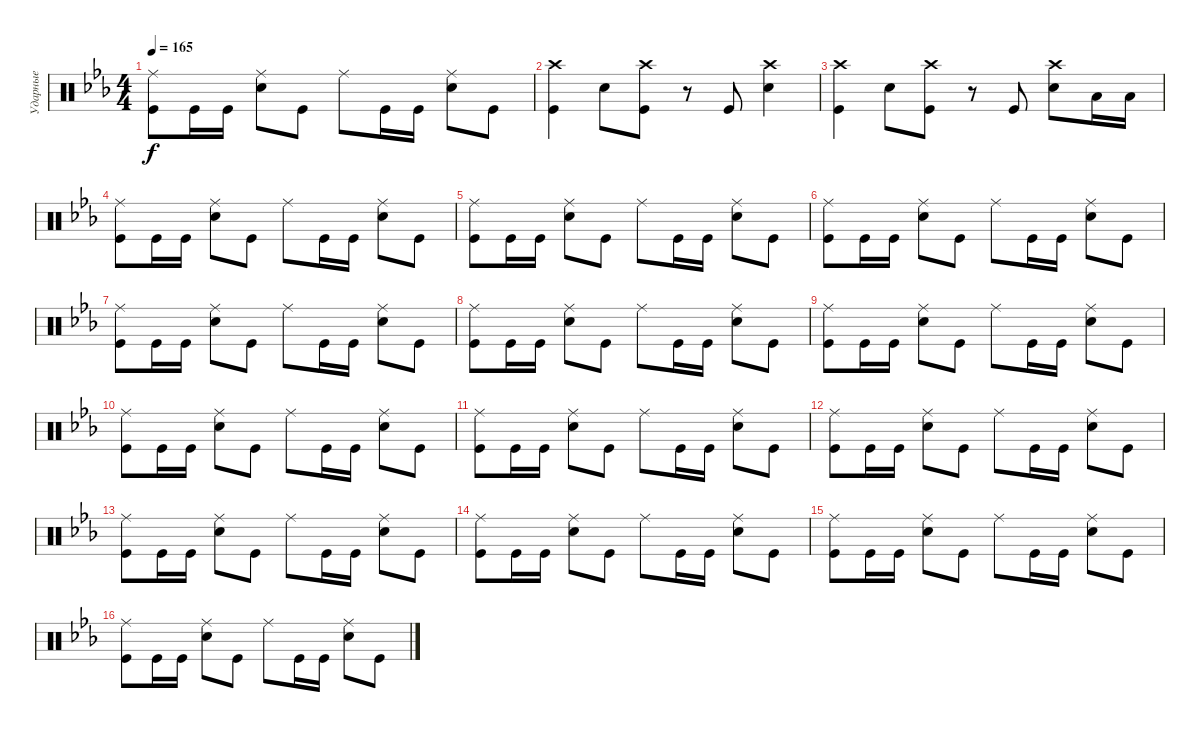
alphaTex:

\track ("Ударные" "Ударные") {instrument percussion}
\staff {score}
\articulation defaults
\ts (4 4)
\tempo 165
\clef neutral
\ks cminor
("Kick (hit)" "Ride (middle)").8{dy f} "Kick (hit)".16 "Kick (hit)".16 ("Snare (hit) 2" "Ride (middle)").8 "Kick (hit)".8 "Ride (middle)".8 "Kick (hit)".16 "Kick (hit)".16 ("Snare (hit) 2" "Ride (middle)").8 "Kick (hit)".8 |
("Kick (hit)" "Crash high (hit)").4 "Snare (hit) 2".8 ("Kick (hit)" "Crash high (hit)").8 r.8 "Kick (hit)".8 ("Snare (hit) 2" "Crash high (hit)").4 |
("Kick (hit)" "Crash high (hit)").4 "Snare (hit) 2".8 ("Kick (hit)" "Crash high (hit)").8 r.8 "Kick (hit)".8 ("Snare (hit) 2" "Crash high (hit)").8 "Low Tom (hit)".16 "Low Tom (hit)".16 |
("Kick (hit)" "Ride (middle)").8 "Kick (hit)".16 "Kick (hit)".16 ("Snare (hit) 2" "Ride (middle)").8 "Kick (hit)".8 "Ride (middle)".8 "Kick (hit)".16 "Kick (hit)".16 ("Snare (hit) 2" "Ride (middle)").8 "Kick (hit)".8 |
("Kick (hit)" "Ride (middle)").8 "Kick (hit)".16 "Kick (hit)".16 ("Snare (hit) 2" "Ride (middle)").8 "Kick (hit)".8 "Ride (middle)".8 "Kick (hit)".16 "Kick (hit)".16 ("Snare (hit) 2" "Ride (middle)").8 "Kick (hit)".8 |
("Kick (hit)" "Ride (middle)").8 "Kick (hit)".16 "Kick (hit)".16 ("Snare (hit) 2" "Ride (middle)").8 "Kick (hit)".8 "Ride (middle)".8 "Kick (hit)".16 "Kick (hit)".16 ("Snare (hit) 2" "Ride (middle)").8 "Kick (hit)".8 |
("Kick (hit)" "Ride (middle)").8 "Kick (hit)".16 "Kick (hit)".16 ("Snare (hit) 2" "Ride (middle)").8 "Kick (hit)".8 "Ride (middle)".8 "Kick (hit)".16 "Kick (hit)".16 ("Snare (hit) 2" "Ride (middle)").8 "Kick (hit)".8 |
("Kick (hit)" "Ride (middle)").8 "Kick (hit)".16 "Kick (hit)".16 ("Snare (hit) 2" "Ride (middle)").8 "Kick (hit)".8 "Ride (middle)".8 "Kick (hit)".16 "Kick (hit)".16 ("Snare (hit) 2" "Ride (middle)").8 "Kick (hit)".8 |
("Kick (hit)" "Ride (middle)").8 "Kick (hit)".16 "Kick (hit)".16 ("Snare (hit) 2" "Ride (middle)").8 "Kick (hit)".8 "Ride (middle)".8 "Kick (hit)".16 "Kick (hit)".16 ("Snare (hit) 2" "Ride (middle)").8 "Kick (hit)".8 |
("Kick (hit)" "Ride (middle)").8 "Kick (hit)".16 "Kick (hit)".16 ("Snare (hit) 2" "Ride (middle)").8 "Kick (hit)".8 "Ride (middle)".8 "Kick (hit)".16 "Kick (hit)".16 ("Snare (hit) 2" "Ride (middle)").8 "Kick (hit)".8 |
("Kick (hit)" "Ride (middle)").8 "Kick (hit)".16 "Kick (hit)".16 ("Snare (hit) 2" "Ride (middle)").8 "Kick (hit)".8 "Ride (middle)".8 "Kick (hit)".16 "Kick (hit)".16 ("Snare (hit) 2" "Ride (middle)").8 "Kick (hit)".8 |
("Kick (hit)" "Ride (middle)").8 "Kick (hit)".16 "Kick (hit)".16 ("Snare (hit) 2" "Ride (middle)").8 "Kick (hit)".8 "Ride (middle)".8 "Kick (hit)".16 "Kick (hit)".16 ("Snare (hit) 2" "Ride (middle)").8 "Kick (hit)".8 |
("Kick (hit)" "Ride (middle)").8 "Kick (hit)".16 "Kick (hit)".16 ("Snare (hit) 2" "Ride (middle)").8 "Kick (hit)".8 "Ride (middle)".8 "Kick (hit)".16 "Kick (hit)".16 ("Snare (hit) 2" "Ride (middle)").8 "Kick (hit)".8 |
("Kick (hit)" "Ride (middle)").8 "Kick (hit)".16 "Kick (hit)".16 ("Snare (hit) 2" "Ride (middle)").8 "Kick (hit)".8 "Ride (middle)".8 "Kick (hit)".16 "Kick (hit)".16 ("Snare (hit) 2" "Ride (middle)").8 "Kick (hit)".8 |
("Kick (hit)" "Ride (middle)").8 "Kick (hit)".16 "Kick (hit)".16 ("Snare (hit) 2" "Ride (middle)").8 "Kick (hit)".8 "Ride (middle)".8 "Kick (hit)".16 "Kick (hit)".16 ("Snare (hit) 2" "Ride (middle)").8 "Kick (hit)".8 |
("Kick (hit)" "Ride (middle)").8 "Kick (hit)".16 "Kick (hit)".16 ("Snare (hit) 2" "Ride (middle)").8 "Kick (hit)".8 "Ride (middle)".8 "Kick (hit)".16 "Kick (hit)".16 ("Snare (hit) 2" "Ride (middle)").8 "Kick (hit)".8
